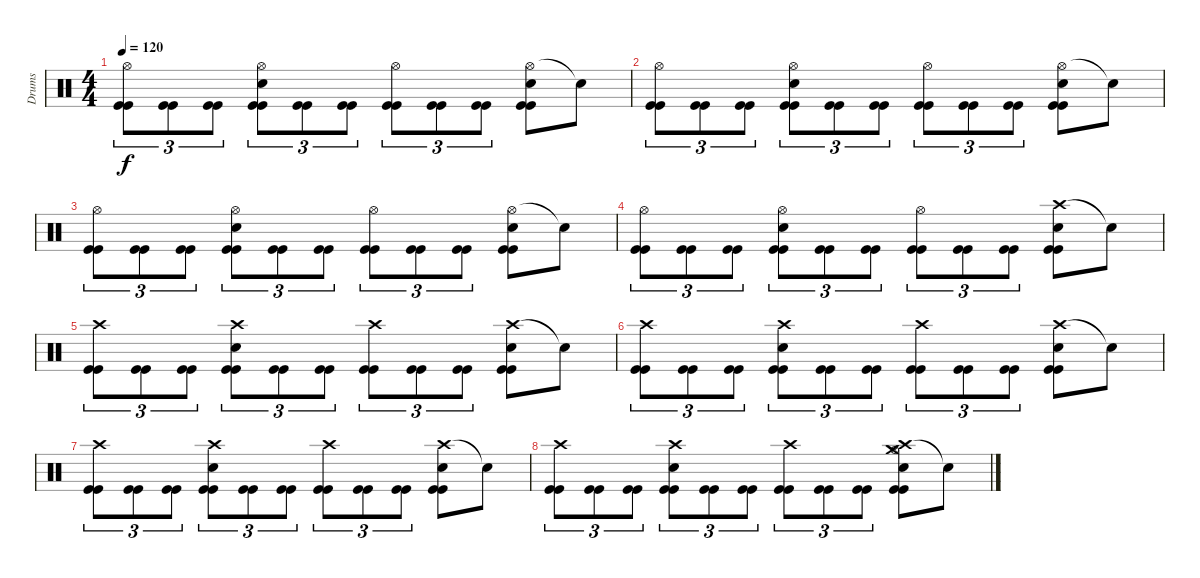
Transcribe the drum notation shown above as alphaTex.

\track ("Drums" "Drums") {instrument percussion}
\staff {score}
\articulation defaults
\ts (4 4)
\tempo 120
\clef neutral
\ks c
("Hi-Hat (open)" "Kick (hit)" "Kick (hit)").8{tu (3 2) dy f} ("Kick (hit)" "Kick (hit)").8{tu (3 2)} ("Kick (hit)" "Kick (hit)").8{tu (3 2)} ("Hi-Hat (open)" "Snare (hit) 2" "Kick (hit)" "Kick (hit)").8{tu (3 2)} ("Kick (hit)" "Kick (hit)").8{tu (3 2)} ("Kick (hit)" "Kick (hit)").8{tu (3 2)} ("Hi-Hat (open)" "Kick (hit)" "Kick (hit)").8{tu (3 2)} ("Kick (hit)" "Kick (hit)").8{tu (3 2)} ("Kick (hit)" "Kick (hit)").8{tu (3 2)} ("Hi-Hat (open)" "Snare (hit) 2" "Kick (hit)" "Kick (hit)").8 "Snare (hit)"{t}.8 |
("Hi-Hat (open)" "Kick (hit)" "Kick (hit)").8{tu (3 2)} ("Kick (hit)" "Kick (hit)").8{tu (3 2)} ("Kick (hit)" "Kick (hit)").8{tu (3 2)} ("Hi-Hat (open)" "Snare (hit) 2" "Kick (hit)" "Kick (hit)").8{tu (3 2)} ("Kick (hit)" "Kick (hit)").8{tu (3 2)} ("Kick (hit)" "Kick (hit)").8{tu (3 2)} ("Hi-Hat (open)" "Kick (hit)" "Kick (hit)").8{tu (3 2)} ("Kick (hit)" "Kick (hit)").8{tu (3 2)} ("Kick (hit)" "Kick (hit)").8{tu (3 2)} ("Hi-Hat (open)" "Snare (hit) 2" "Kick (hit)" "Kick (hit)").8 "Snare (hit)"{t}.8 |
("Hi-Hat (open)" "Kick (hit)" "Kick (hit)").8{tu (3 2)} ("Kick (hit)" "Kick (hit)").8{tu (3 2)} ("Kick (hit)" "Kick (hit)").8{tu (3 2)} ("Hi-Hat (open)" "Snare (hit) 2" "Kick (hit)" "Kick (hit)").8{tu (3 2)} ("Kick (hit)" "Kick (hit)").8{tu (3 2)} ("Kick (hit)" "Kick (hit)").8{tu (3 2)} ("Hi-Hat (open)" "Kick (hit)" "Kick (hit)").8{tu (3 2)} ("Kick (hit)" "Kick (hit)").8{tu (3 2)} ("Kick (hit)" "Kick (hit)").8{tu (3 2)} ("Hi-Hat (open)" "Snare (hit) 2" "Kick (hit)" "Kick (hit)").8 "Snare (hit)"{t}.8 |
("Hi-Hat (open)" "Kick (hit)" "Kick (hit)").8{tu (3 2)} ("Kick (hit)" "Kick (hit)").8{tu (3 2)} ("Kick (hit)" "Kick (hit)").8{tu (3 2)} ("Hi-Hat (open)" "Snare (hit) 2" "Kick (hit)" "Kick (hit)").8{tu (3 2)} ("Kick (hit)" "Kick (hit)").8{tu (3 2)} ("Kick (hit)" "Kick (hit)").8{tu (3 2)} ("Hi-Hat (open)" "Kick (hit)" "Kick (hit)").8{tu (3 2)} ("Kick (hit)" "Kick (hit)").8{tu (3 2)} ("Kick (hit)" "Kick (hit)").8{tu (3 2)} ("Crash high (hit)" "Snare (hit) 2" "Kick (hit)" "Kick (hit)").8 "Snare (hit)"{t}.8 |
("Crash high (hit)" "Kick (hit)" "Kick (hit)").8{tu (3 2)} ("Kick (hit)" "Kick (hit)").8{tu (3 2)} ("Kick (hit)" "Kick (hit)").8{tu (3 2)} ("Crash high (hit)" "Snare (hit) 2" "Kick (hit)" "Kick (hit)").8{tu (3 2)} ("Kick (hit)" "Kick (hit)").8{tu (3 2)} ("Kick (hit)" "Kick (hit)").8{tu (3 2)} ("Crash high (hit)" "Kick (hit)" "Kick (hit)").8{tu (3 2)} ("Kick (hit)" "Kick (hit)").8{tu (3 2)} ("Kick (hit)" "Kick (hit)").8{tu (3 2)} ("Crash high (hit)" "Snare (hit) 2" "Kick (hit)" "Kick (hit)").8 "Snare (hit)"{t}.8 |
("Crash high (hit)" "Kick (hit)" "Kick (hit)").8{tu (3 2)} ("Kick (hit)" "Kick (hit)").8{tu (3 2)} ("Kick (hit)" "Kick (hit)").8{tu (3 2)} ("Crash high (hit)" "Snare (hit) 2" "Kick (hit)" "Kick (hit)").8{tu (3 2)} ("Kick (hit)" "Kick (hit)").8{tu (3 2)} ("Kick (hit)" "Kick (hit)").8{tu (3 2)} ("Crash high (hit)" "Kick (hit)" "Kick (hit)").8{tu (3 2)} ("Kick (hit)" "Kick (hit)").8{tu (3 2)} ("Kick (hit)" "Kick (hit)").8{tu (3 2)} ("Crash high (hit)" "Snare (hit) 2" "Kick (hit)" "Kick (hit)").8 "Snare (hit)"{t}.8 |
("Crash high (hit)" "Kick (hit)" "Kick (hit)").8{tu (3 2)} ("Kick (hit)" "Kick (hit)").8{tu (3 2)} ("Kick (hit)" "Kick (hit)").8{tu (3 2)} ("Crash high (hit)" "Snare (hit) 2" "Kick (hit)" "Kick (hit)").8{tu (3 2)} ("Kick (hit)" "Kick (hit)").8{tu (3 2)} ("Kick (hit)" "Kick (hit)").8{tu (3 2)} ("Crash high (hit)" "Kick (hit)" "Kick (hit)").8{tu (3 2)} ("Kick (hit)" "Kick (hit)").8{tu (3 2)} ("Kick (hit)" "Kick (hit)").8{tu (3 2)} ("Crash high (hit)" "Snare (hit) 2" "Kick (hit)" "Kick (hit)").8 "Snare (hit)"{t}.8 |
("Crash high (hit)" "Kick (hit)" "Kick (hit)").8{tu (3 2)} ("Kick (hit)" "Kick (hit)").8{tu (3 2)} ("Kick (hit)" "Kick (hit)").8{tu (3 2)} ("Crash high (hit)" "Snare (hit) 2" "Kick (hit)" "Kick (hit)").8{tu (3 2)} ("Kick (hit)" "Kick (hit)").8{tu (3 2)} ("Kick (hit)" "Kick (hit)").8{tu (3 2)} ("Crash high (hit)" "Kick (hit)" "Kick (hit)").8{tu (3 2)} ("Kick (hit)" "Kick (hit)").8{tu (3 2)} ("Kick (hit)" "Kick (hit)").8{tu (3 2)} ("Crash high (hit)" "Crash medium (hit)" "Hi-Hat (open)" "Snare (hit) 2" "Kick (hit)" "Kick (hit)").8 "Snare (hit)"{t}.8
